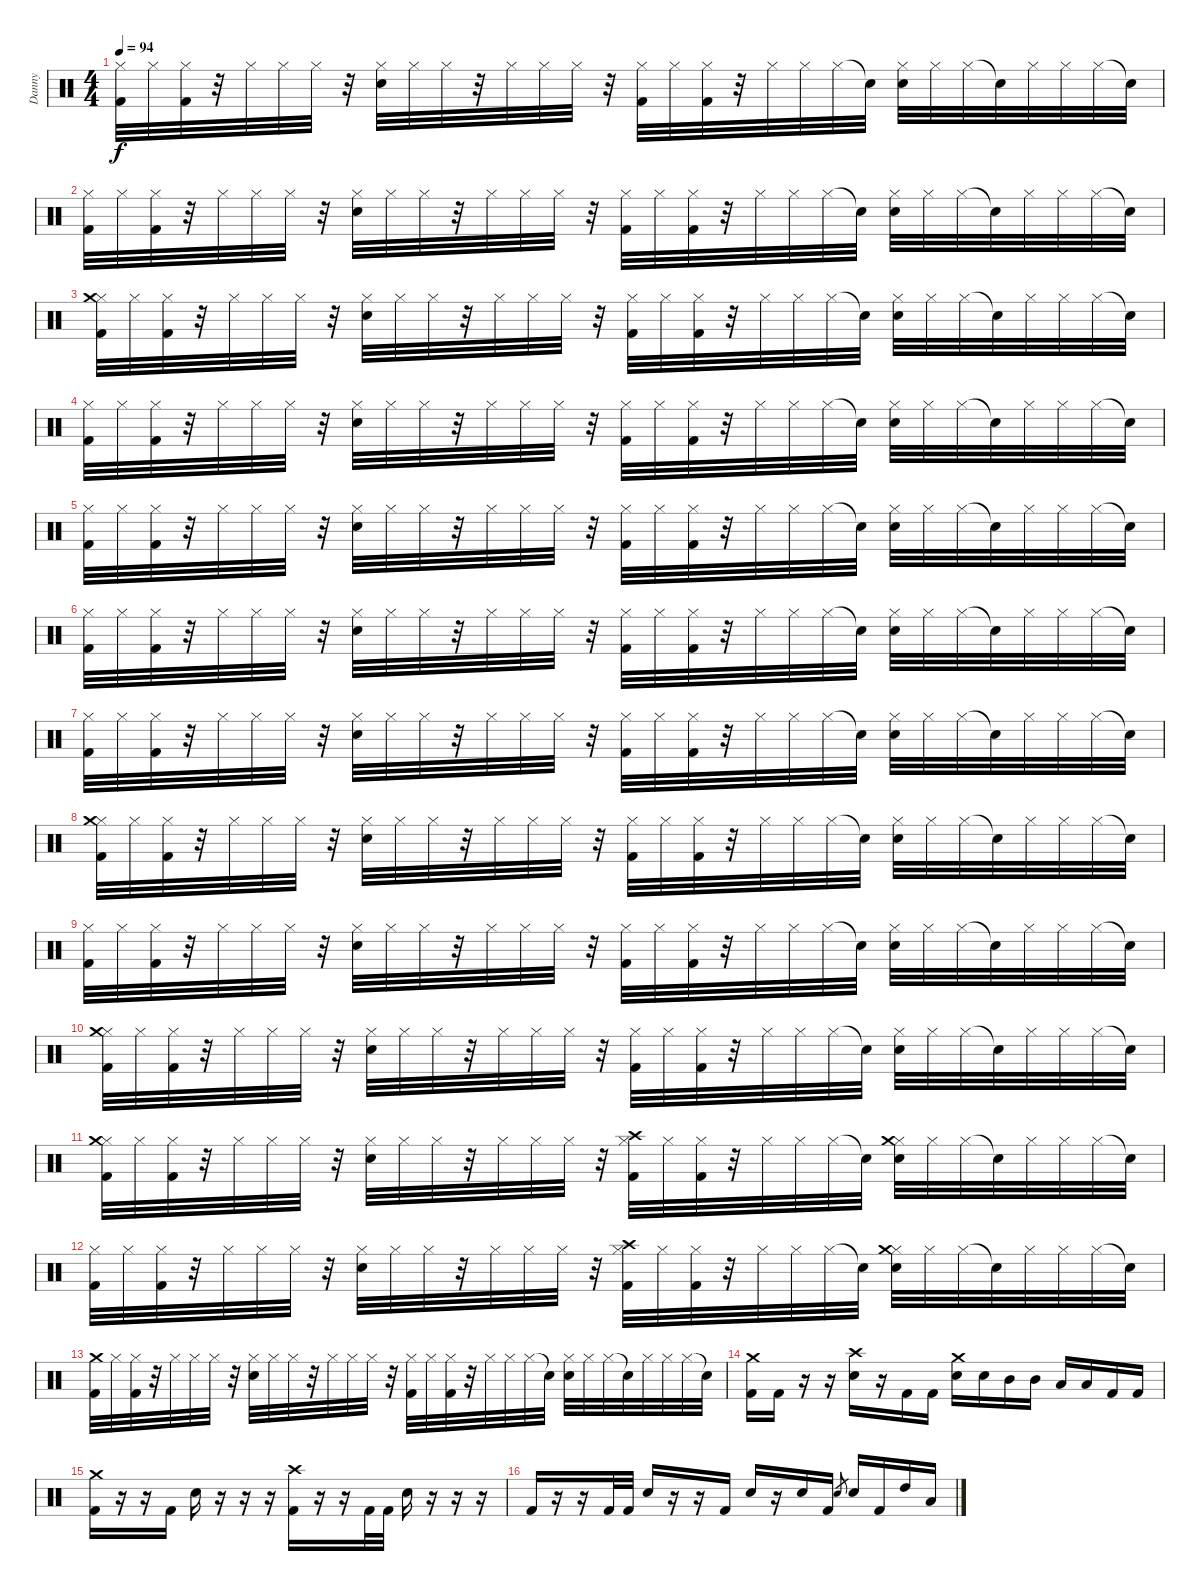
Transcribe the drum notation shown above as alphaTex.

\track ("Danny" "Danny") {instrument percussion}
\staff {score}
\articulation defaults
\ts (4 4)
\tempo 94
\clef neutral
\ks c
("Hi-Hat (closed)" "Kick (hit) 2").32{dy f} "Hi-Hat (closed)".32 ("Hi-Hat (closed)" "Kick (hit) 2").32 r.32 "Hi-Hat (closed)".32 "Hi-Hat (closed)".32 "Hi-Hat (closed)".32 r.32 ("Hi-Hat (closed)" "Electric Snare (hit)").32 "Hi-Hat (closed)".32 "Hi-Hat (closed)".32 r.32 "Hi-Hat (closed)".32 "Hi-Hat (closed)".32 "Hi-Hat (closed)".32 r.32 ("Hi-Hat (closed)" "Kick (hit) 2").32 "Hi-Hat (closed)".32 ("Hi-Hat (closed)" "Kick (hit) 2").32 r.32 "Hi-Hat (closed)".32 "Hi-Hat (closed)".32 "Hi-Hat (closed)".32 "Snare (hit)"{t}.32 ("Hi-Hat (closed)" "Electric Snare (hit)").32 "Hi-Hat (closed)".32 "Hi-Hat (closed)".32 "Snare (hit)"{t}.32 "Hi-Hat (closed)".32 "Hi-Hat (closed)".32 "Hi-Hat (closed)".32 "Snare (hit)"{t}.32 |
("Hi-Hat (closed)" "Kick (hit) 2").32 "Hi-Hat (closed)".32 ("Hi-Hat (closed)" "Kick (hit) 2").32 r.32 "Hi-Hat (closed)".32 "Hi-Hat (closed)".32 "Hi-Hat (closed)".32 r.32 ("Hi-Hat (closed)" "Electric Snare (hit)").32 "Hi-Hat (closed)".32 "Hi-Hat (closed)".32 r.32 "Hi-Hat (closed)".32 "Hi-Hat (closed)".32 "Hi-Hat (closed)".32 r.32 ("Hi-Hat (closed)" "Kick (hit) 2").32 "Hi-Hat (closed)".32 ("Hi-Hat (closed)" "Kick (hit) 2").32 r.32 "Hi-Hat (closed)".32 "Hi-Hat (closed)".32 "Hi-Hat (closed)".32 "Snare (hit)"{t}.32 ("Hi-Hat (closed)" "Electric Snare (hit)").32 "Hi-Hat (closed)".32 "Hi-Hat (closed)".32 "Snare (hit)"{t}.32 "Hi-Hat (closed)".32 "Hi-Hat (closed)".32 "Hi-Hat (closed)".32 "Snare (hit)"{t}.32 |
("Hi-Hat (closed)" "Crash medium (hit)" "Kick (hit) 2").32 "Hi-Hat (closed)".32 ("Hi-Hat (closed)" "Kick (hit) 2").32 r.32 "Hi-Hat (closed)".32 "Hi-Hat (closed)".32 "Hi-Hat (closed)".32 r.32 ("Hi-Hat (closed)" "Electric Snare (hit)").32 "Hi-Hat (closed)".32 "Hi-Hat (closed)".32 r.32 "Hi-Hat (closed)".32 "Hi-Hat (closed)".32 "Hi-Hat (closed)".32 r.32 ("Hi-Hat (closed)" "Kick (hit) 2").32 "Hi-Hat (closed)".32 ("Hi-Hat (closed)" "Kick (hit) 2").32 r.32 "Hi-Hat (closed)".32 "Hi-Hat (closed)".32 "Hi-Hat (closed)".32 "Snare (hit)"{t}.32 ("Hi-Hat (closed)" "Electric Snare (hit)").32 "Hi-Hat (closed)".32 "Hi-Hat (closed)".32 "Snare (hit)"{t}.32 "Hi-Hat (closed)".32 "Hi-Hat (closed)".32 "Hi-Hat (closed)".32 "Snare (hit)"{t}.32 |
("Hi-Hat (closed)" "Kick (hit) 2").32 "Hi-Hat (closed)".32 ("Hi-Hat (closed)" "Kick (hit) 2").32 r.32 "Hi-Hat (closed)".32 "Hi-Hat (closed)".32 "Hi-Hat (closed)".32 r.32 ("Hi-Hat (closed)" "Electric Snare (hit)").32 "Hi-Hat (closed)".32 "Hi-Hat (closed)".32 r.32 "Hi-Hat (closed)".32 "Hi-Hat (closed)".32 "Hi-Hat (closed)".32 r.32 ("Hi-Hat (closed)" "Kick (hit) 2").32 "Hi-Hat (closed)".32 ("Hi-Hat (closed)" "Kick (hit) 2").32 r.32 "Hi-Hat (closed)".32 "Hi-Hat (closed)".32 "Hi-Hat (closed)".32 "Snare (hit)"{t}.32 ("Hi-Hat (closed)" "Electric Snare (hit)").32 "Hi-Hat (closed)".32 "Hi-Hat (closed)".32 "Snare (hit)"{t}.32 "Hi-Hat (closed)".32 "Hi-Hat (closed)".32 "Hi-Hat (closed)".32 "Snare (hit)"{t}.32 |
("Hi-Hat (closed)" "Kick (hit) 2").32 "Hi-Hat (closed)".32 ("Hi-Hat (closed)" "Kick (hit) 2").32 r.32 "Hi-Hat (closed)".32 "Hi-Hat (closed)".32 "Hi-Hat (closed)".32 r.32 ("Hi-Hat (closed)" "Electric Snare (hit)").32 "Hi-Hat (closed)".32 "Hi-Hat (closed)".32 r.32 "Hi-Hat (closed)".32 "Hi-Hat (closed)".32 "Hi-Hat (closed)".32 r.32 ("Hi-Hat (closed)" "Kick (hit) 2").32 "Hi-Hat (closed)".32 ("Hi-Hat (closed)" "Kick (hit) 2").32 r.32 "Hi-Hat (closed)".32 "Hi-Hat (closed)".32 "Hi-Hat (closed)".32 "Snare (hit)"{t}.32 ("Hi-Hat (closed)" "Electric Snare (hit)").32 "Hi-Hat (closed)".32 "Hi-Hat (closed)".32 "Snare (hit)"{t}.32 "Hi-Hat (closed)".32 "Hi-Hat (closed)".32 "Hi-Hat (closed)".32 "Snare (hit)"{t}.32 |
("Hi-Hat (closed)" "Kick (hit) 2").32 "Hi-Hat (closed)".32 ("Hi-Hat (closed)" "Kick (hit) 2").32 r.32 "Hi-Hat (closed)".32 "Hi-Hat (closed)".32 "Hi-Hat (closed)".32 r.32 ("Hi-Hat (closed)" "Electric Snare (hit)").32 "Hi-Hat (closed)".32 "Hi-Hat (closed)".32 r.32 "Hi-Hat (closed)".32 "Hi-Hat (closed)".32 "Hi-Hat (closed)".32 r.32 ("Hi-Hat (closed)" "Kick (hit) 2").32 "Hi-Hat (closed)".32 ("Hi-Hat (closed)" "Kick (hit) 2").32 r.32 "Hi-Hat (closed)".32 "Hi-Hat (closed)".32 "Hi-Hat (closed)".32 "Snare (hit)"{t}.32 ("Hi-Hat (closed)" "Electric Snare (hit)").32 "Hi-Hat (closed)".32 "Hi-Hat (closed)".32 "Snare (hit)"{t}.32 "Hi-Hat (closed)".32 "Hi-Hat (closed)".32 "Hi-Hat (closed)".32 "Snare (hit)"{t}.32 |
("Hi-Hat (closed)" "Kick (hit) 2").32 "Hi-Hat (closed)".32 ("Hi-Hat (closed)" "Kick (hit) 2").32 r.32 "Hi-Hat (closed)".32 "Hi-Hat (closed)".32 "Hi-Hat (closed)".32 r.32 ("Hi-Hat (closed)" "Electric Snare (hit)").32 "Hi-Hat (closed)".32 "Hi-Hat (closed)".32 r.32 "Hi-Hat (closed)".32 "Hi-Hat (closed)".32 "Hi-Hat (closed)".32 r.32 ("Hi-Hat (closed)" "Kick (hit) 2").32 "Hi-Hat (closed)".32 ("Hi-Hat (closed)" "Kick (hit) 2").32 r.32 "Hi-Hat (closed)".32 "Hi-Hat (closed)".32 "Hi-Hat (closed)".32 "Snare (hit)"{t}.32 ("Hi-Hat (closed)" "Electric Snare (hit)").32 "Hi-Hat (closed)".32 "Hi-Hat (closed)".32 "Snare (hit)"{t}.32 "Hi-Hat (closed)".32 "Hi-Hat (closed)".32 "Hi-Hat (closed)".32 "Snare (hit)"{t}.32 |
("Hi-Hat (closed)" "Crash medium (hit)" "Kick (hit) 2").32 "Hi-Hat (closed)".32 ("Hi-Hat (closed)" "Kick (hit) 2").32 r.32 "Hi-Hat (closed)".32 "Hi-Hat (closed)".32 "Hi-Hat (closed)".32 r.32 ("Hi-Hat (closed)" "Electric Snare (hit)").32 "Hi-Hat (closed)".32 "Hi-Hat (closed)".32 r.32 "Hi-Hat (closed)".32 "Hi-Hat (closed)".32 "Hi-Hat (closed)".32 r.32 ("Hi-Hat (closed)" "Kick (hit) 2").32 "Hi-Hat (closed)".32 ("Hi-Hat (closed)" "Kick (hit) 2").32 r.32 "Hi-Hat (closed)".32 "Hi-Hat (closed)".32 "Hi-Hat (closed)".32 "Snare (hit)"{t}.32 ("Hi-Hat (closed)" "Electric Snare (hit)").32 "Hi-Hat (closed)".32 "Hi-Hat (closed)".32 "Snare (hit)"{t}.32 "Hi-Hat (closed)".32 "Hi-Hat (closed)".32 "Hi-Hat (closed)".32 "Snare (hit)"{t}.32 |
("Hi-Hat (closed)" "Kick (hit) 2").32 "Hi-Hat (closed)".32 ("Hi-Hat (closed)" "Kick (hit) 2").32 r.32 "Hi-Hat (closed)".32 "Hi-Hat (closed)".32 "Hi-Hat (closed)".32 r.32 ("Hi-Hat (closed)" "Electric Snare (hit)").32 "Hi-Hat (closed)".32 "Hi-Hat (closed)".32 r.32 "Hi-Hat (closed)".32 "Hi-Hat (closed)".32 "Hi-Hat (closed)".32 r.32 ("Hi-Hat (closed)" "Kick (hit) 2").32 "Hi-Hat (closed)".32 ("Hi-Hat (closed)" "Kick (hit) 2").32 r.32 "Hi-Hat (closed)".32 "Hi-Hat (closed)".32 "Hi-Hat (closed)".32 "Snare (hit)"{t}.32 ("Hi-Hat (closed)" "Electric Snare (hit)").32 "Hi-Hat (closed)".32 "Hi-Hat (closed)".32 "Snare (hit)"{t}.32 "Hi-Hat (closed)".32 "Hi-Hat (closed)".32 "Hi-Hat (closed)".32 "Snare (hit)"{t}.32 |
("Hi-Hat (closed)" "Crash medium (hit)" "Kick (hit) 2").32 "Hi-Hat (closed)".32 ("Hi-Hat (closed)" "Kick (hit) 2").32 r.32 "Hi-Hat (closed)".32 "Hi-Hat (closed)".32 "Hi-Hat (closed)".32 r.32 ("Hi-Hat (closed)" "Electric Snare (hit)").32 "Hi-Hat (closed)".32 "Hi-Hat (closed)".32 r.32 "Hi-Hat (closed)".32 "Hi-Hat (closed)".32 "Hi-Hat (closed)".32 r.32 ("Hi-Hat (closed)" "Kick (hit) 2").32 "Hi-Hat (closed)".32 ("Hi-Hat (closed)" "Kick (hit) 2").32 r.32 "Hi-Hat (closed)".32 "Hi-Hat (closed)".32 "Hi-Hat (closed)".32 "Snare (hit)"{t}.32 ("Hi-Hat (closed)" "Electric Snare (hit)").32 "Hi-Hat (closed)".32 "Hi-Hat (closed)".32 "Snare (hit)"{t}.32 "Hi-Hat (closed)".32 "Hi-Hat (closed)".32 "Hi-Hat (closed)".32 "Snare (hit)"{t}.32 |
("Hi-Hat (closed)" "Crash medium (hit)" "Kick (hit) 2").32 "Hi-Hat (closed)".32 ("Hi-Hat (closed)" "Kick (hit) 2").32 r.32 "Hi-Hat (closed)".32 "Hi-Hat (closed)".32 "Hi-Hat (closed)".32 r.32 ("Hi-Hat (closed)" "Electric Snare (hit)").32 "Hi-Hat (closed)".32 "Hi-Hat (closed)".32 r.32 "Hi-Hat (closed)".32 "Hi-Hat (closed)".32 "Hi-Hat (closed)".32 r.32 ("Hi-Hat (closed)" "Crash high (hit)" "Kick (hit) 2").32 "Hi-Hat (closed)".32 ("Hi-Hat (closed)" "Kick (hit) 2").32 r.32 "Hi-Hat (closed)".32 "Hi-Hat (closed)".32 "Hi-Hat (closed)".32 "Snare (hit)"{t}.32 ("Hi-Hat (closed)" "Crash medium (hit)" "Electric Snare (hit)").32 "Hi-Hat (closed)".32 "Hi-Hat (closed)".32 "Snare (hit)"{t}.32 "Hi-Hat (closed)".32 "Hi-Hat (closed)".32 "Hi-Hat (closed)".32 "Snare (hit)"{t}.32 |
("Hi-Hat (closed)" "Kick (hit) 2").32 "Hi-Hat (closed)".32 ("Hi-Hat (closed)" "Kick (hit) 2").32 r.32 "Hi-Hat (closed)".32 "Hi-Hat (closed)".32 "Hi-Hat (closed)".32 r.32 ("Hi-Hat (closed)" "Electric Snare (hit)").32 "Hi-Hat (closed)".32 "Hi-Hat (closed)".32 r.32 "Hi-Hat (closed)".32 "Hi-Hat (closed)".32 "Hi-Hat (closed)".32 r.32 ("Hi-Hat (closed)" "Crash high (hit)" "Kick (hit) 2").32 "Hi-Hat (closed)".32 ("Hi-Hat (closed)" "Kick (hit) 2").32 r.32 "Hi-Hat (closed)".32 "Hi-Hat (closed)".32 "Hi-Hat (closed)".32 "Snare (hit)"{t}.32 ("Hi-Hat (closed)" "Crash medium (hit)" "Electric Snare (hit)").32 "Hi-Hat (closed)".32 "Hi-Hat (closed)".32 "Snare (hit)"{t}.32 "Hi-Hat (closed)".32 "Hi-Hat (closed)".32 "Hi-Hat (closed)".32 "Snare (hit)"{t}.32 |
("Crash medium (hit)" "Kick (hit) 2").32 "Hi-Hat (closed)".32 ("Hi-Hat (closed)" "Kick (hit) 2").32 r.32 "Hi-Hat (closed)".32 "Hi-Hat (closed)".32 "Hi-Hat (closed)".32 r.32 ("Hi-Hat (closed)" "Electric Snare (hit)").32 "Hi-Hat (closed)".32 "Hi-Hat (closed)".32 r.32 "Hi-Hat (closed)".32 "Hi-Hat (closed)".32 "Hi-Hat (closed)".32 r.32 ("Hi-Hat (closed)" "Kick (hit) 2").32 "Hi-Hat (closed)".32 ("Hi-Hat (closed)" "Kick (hit) 2").32 r.32 "Hi-Hat (closed)".32 "Hi-Hat (closed)".32 "Hi-Hat (closed)".32 "Snare (hit)"{t}.32 ("Hi-Hat (closed)" "Electric Snare (hit)").32 "Hi-Hat (closed)".32 "Hi-Hat (closed)".32 "Snare (hit)"{t}.32 "Hi-Hat (closed)".32 "Hi-Hat (closed)".32 "Hi-Hat (closed)".32 "Snare (hit)"{t}.32 |
("Crash medium (hit)" "Kick (hit) 2").16 "Kick (hit) 2".16 r.16 r.16 ("Crash high (hit)" "Electric Snare (hit)").16 r.16 "Kick (hit) 2".16 "Kick (hit) 2".16 ("Crash medium (hit)" "Electric Snare (hit)").16 "Electric Snare (hit)".16 "Mid Tom (hit)".16 "Mid Tom (hit)".16 "Low Tom (hit)".16 "Low Tom (hit)".16 "Kick (hit) 2".16 "Kick (hit) 2".16 |
("Crash medium (hit)" "Kick (hit) 2").16 r.16 r.16 "Kick (hit) 2".16 "Electric Snare (hit)".16 r.16 r.16 r.16 ("Crash high (hit)" "Kick (hit) 2").16 r.16 r.16 "Kick (hit) 2".32 "Kick (hit) 2".32 "Electric Snare (hit)".16 r.16 r.16 r.16 |
"Kick (hit) 2".16 r.16 r.16 "Kick (hit) 2".32 "Kick (hit) 2".32 "Electric Snare (hit)".16 r.16 r.16 "Kick (hit) 2".16 "Electric Snare (hit)".16 r.16 "Electric Snare (hit)".16 "Kick (hit) 2".16 "Electric Snare (hit)".8{gr} "Electric Snare (hit)".16 "Kick (hit) 2".16 "High Tom (hit)".16 "Low Tom (hit)".16
